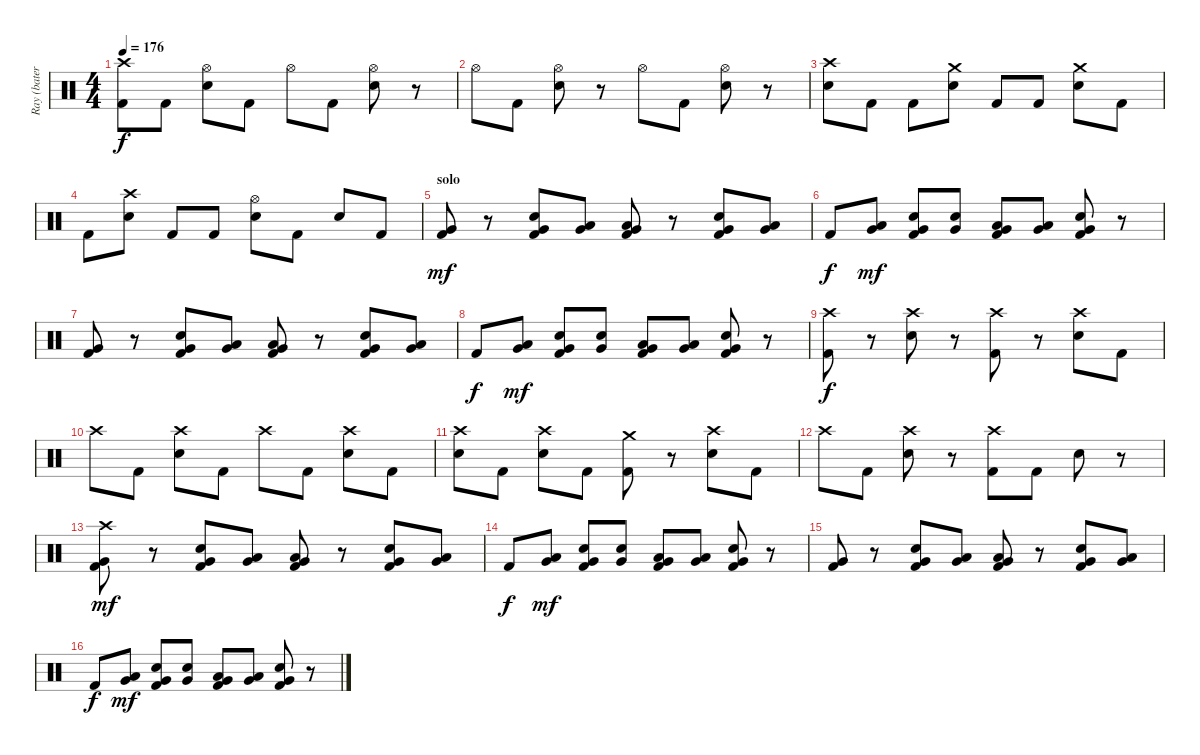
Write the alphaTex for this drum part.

\track ("Ray (batería)" "Ray (bater") {instrument percussion}
\staff {score}
\articulation defaults
\ts (4 4)
\tempo 176
\clef neutral
\ks c
("Crash high (hit)" "Kick (hit) 2").8{dy f} "Kick (hit) 2".8 ("Hi-Hat (open)" "Snare (hit) 2").8 "Kick (hit) 2".8 "Hi-Hat (open)".8 "Kick (hit) 2".8 ("Hi-Hat (open)" "Snare (hit) 2").8 r.8 |
"Hi-Hat (open)".8 "Kick (hit) 2".8 ("Hi-Hat (open)" "Snare (hit) 2").8 r.8 "Hi-Hat (open)".8 "Kick (hit) 2".8 ("Hi-Hat (open)" "Snare (hit) 2").8 r.8 |
("Crash high (hit)" "Snare (hit) 2").8 "Kick (hit) 2".8 "Kick (hit) 2".8 ("Crash medium (hit)" "Snare (hit) 2").8 "Kick (hit) 2".8 "Kick (hit) 2".8 ("Crash medium (hit)" "Snare (hit) 2").8 "Kick (hit) 2".8 |
"Kick (hit) 2".8 ("Crash high (hit)" "Snare (hit) 2").8 "Kick (hit) 2".8 "Kick (hit) 2".8 ("Hi-Hat (open)" "Snare (hit) 2").8 "Kick (hit) 2".8 "Snare (hit) 2".8 "Kick (hit) 2".8 |
\section ("" "solo")
("Very Low Tom (hit)" "Kick (hit) 2").8{dy mf} r.8 ("Snare (hit) 2" "Very Low Tom (hit)" "Kick (hit) 2").8 ("Low Tom (hit)" "Very Low Tom (hit)").8 ("Low Tom (hit)" "Very Low Tom (hit)" "Kick (hit) 2").8 r.8 ("Snare (hit) 2" "Very Low Tom (hit)" "Kick (hit) 2").8 ("Low Tom (hit)" "Very Low Tom (hit)").8 |
"Kick (hit) 2".8{dy f} ("Low Tom (hit)" "Very Low Tom (hit)").8{dy mf} ("Snare (hit) 2" "Very Low Tom (hit)" "Kick (hit) 2").8 ("Snare (hit) 2" "Very Low Tom (hit)").8 ("Low Tom (hit)" "Very Low Tom (hit)" "Kick (hit) 2").8 ("Low Tom (hit)" "Very Low Tom (hit)").8 ("Snare (hit) 2" "Very Low Tom (hit)" "Kick (hit) 2").8 r.8 |
("Very Low Tom (hit)" "Kick (hit) 2").8 r.8 ("Snare (hit) 2" "Very Low Tom (hit)" "Kick (hit) 2").8 ("Low Tom (hit)" "Very Low Tom (hit)").8 ("Low Tom (hit)" "Very Low Tom (hit)" "Kick (hit) 2").8 r.8 ("Snare (hit) 2" "Very Low Tom (hit)" "Kick (hit) 2").8 ("Low Tom (hit)" "Very Low Tom (hit)").8 |
"Kick (hit) 2".8{dy f} ("Low Tom (hit)" "Very Low Tom (hit)").8{dy mf} ("Snare (hit) 2" "Very Low Tom (hit)" "Kick (hit) 2").8 ("Snare (hit) 2" "Very Low Tom (hit)").8 ("Low Tom (hit)" "Very Low Tom (hit)" "Kick (hit) 2").8 ("Low Tom (hit)" "Very Low Tom (hit)").8 ("Snare (hit) 2" "Very Low Tom (hit)" "Kick (hit) 2").8 r.8 |
("Crash high (hit)" "Kick (hit) 2").8{dy f} r.8 ("Crash high (hit)" "Snare (hit) 2").8 r.8 ("Crash high (hit)" "Kick (hit) 2").8 r.8 ("Crash high (hit)" "Snare (hit) 2").8 "Kick (hit) 2".8 |
"Crash high (hit)".8 "Kick (hit) 2".8 ("Crash high (hit)" "Snare (hit) 2").8 "Kick (hit) 2".8 "Crash high (hit)".8 "Kick (hit) 2".8 ("Crash high (hit)" "Snare (hit) 2").8 "Kick (hit) 2".8 |
("Crash high (hit)" "Snare (hit) 2").8 "Kick (hit) 2".8 ("Crash high (hit)" "Snare (hit) 2").8 "Kick (hit) 2".8 ("Crash medium (hit)" "Kick (hit) 2").8 r.8 ("Crash high (hit)" "Snare (hit) 2").8 "Kick (hit) 2".8 |
"Crash high (hit)".8 "Kick (hit) 2".8 ("Crash high (hit)" "Snare (hit) 2").8 r.8 ("Crash high (hit)" "Kick (hit) 2").8 "Kick (hit) 2".8 "Snare (hit) 2".8 r.8 |
("Crash high (hit)" "Very Low Tom (hit)" "Kick (hit) 2").8{dy mf} r.8 ("Snare (hit) 2" "Very Low Tom (hit)" "Kick (hit) 2").8 ("Low Tom (hit)" "Very Low Tom (hit)").8 ("Low Tom (hit)" "Very Low Tom (hit)" "Kick (hit) 2").8 r.8 ("Snare (hit) 2" "Very Low Tom (hit)" "Kick (hit) 2").8 ("Low Tom (hit)" "Very Low Tom (hit)").8 |
"Kick (hit) 2".8{dy f} ("Low Tom (hit)" "Very Low Tom (hit)").8{dy mf} ("Snare (hit) 2" "Very Low Tom (hit)" "Kick (hit) 2").8 ("Snare (hit) 2" "Very Low Tom (hit)").8 ("Low Tom (hit)" "Very Low Tom (hit)" "Kick (hit) 2").8 ("Low Tom (hit)" "Very Low Tom (hit)").8 ("Snare (hit) 2" "Very Low Tom (hit)" "Kick (hit) 2").8 r.8 |
("Very Low Tom (hit)" "Kick (hit) 2").8 r.8 ("Snare (hit) 2" "Very Low Tom (hit)" "Kick (hit) 2").8 ("Low Tom (hit)" "Very Low Tom (hit)").8 ("Low Tom (hit)" "Very Low Tom (hit)" "Kick (hit) 2").8 r.8 ("Snare (hit) 2" "Very Low Tom (hit)" "Kick (hit) 2").8 ("Low Tom (hit)" "Very Low Tom (hit)").8 |
"Kick (hit) 2".8{dy f} ("Low Tom (hit)" "Very Low Tom (hit)").8{dy mf} ("Snare (hit) 2" "Very Low Tom (hit)" "Kick (hit) 2").8 ("Snare (hit) 2" "Very Low Tom (hit)").8 ("Low Tom (hit)" "Very Low Tom (hit)" "Kick (hit) 2").8 ("Low Tom (hit)" "Very Low Tom (hit)").8 ("Snare (hit) 2" "Very Low Tom (hit)" "Kick (hit) 2").8 r.8
